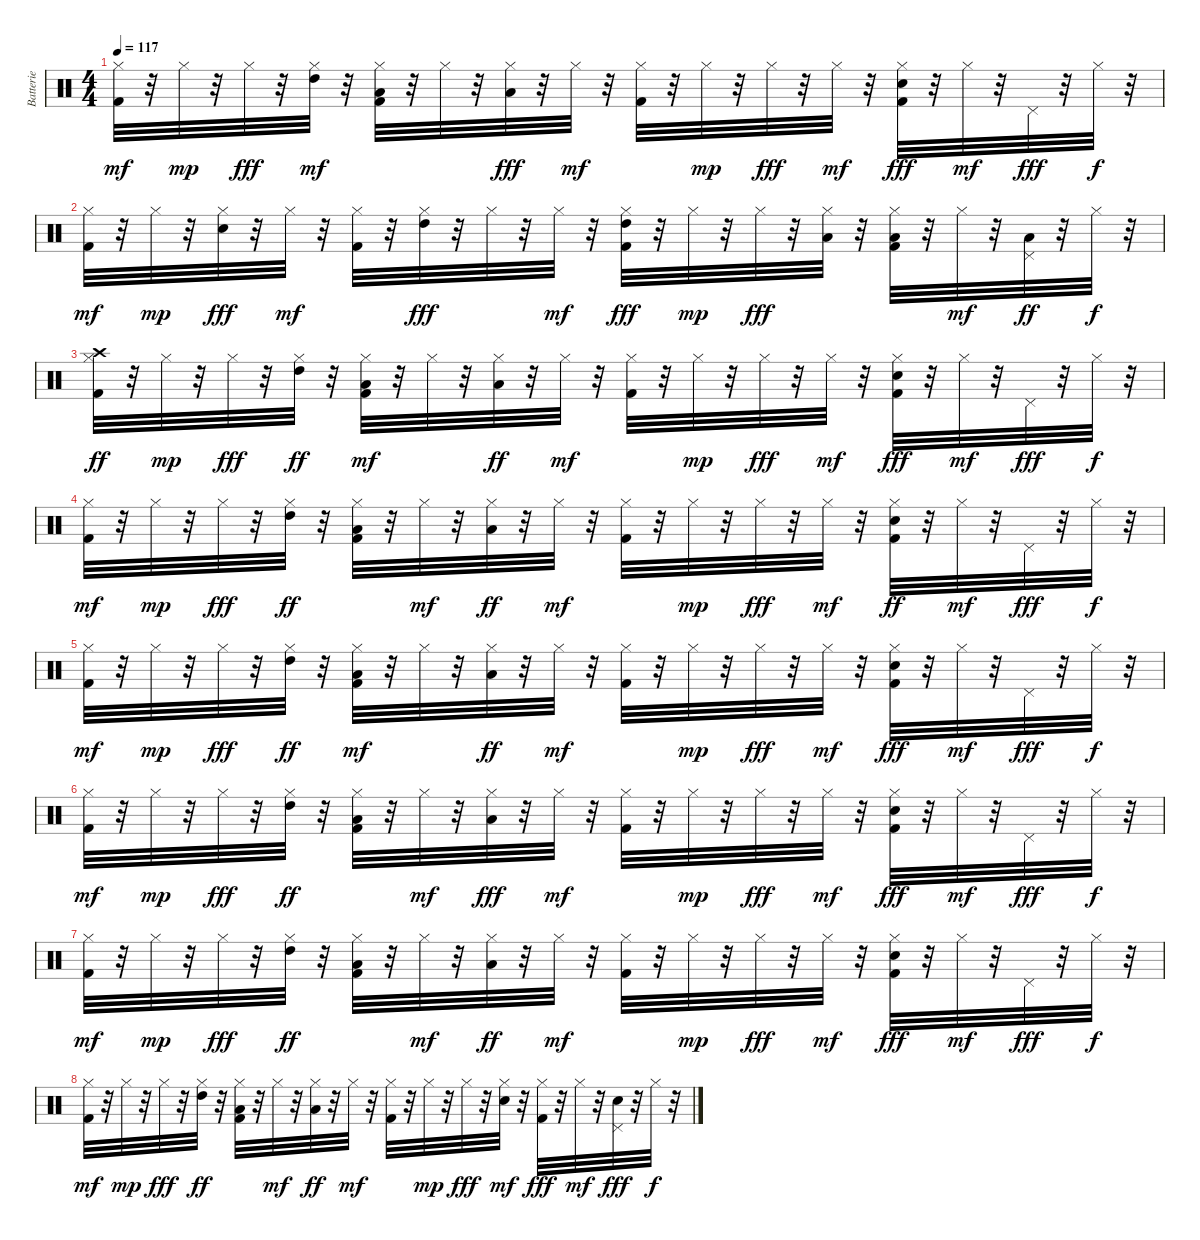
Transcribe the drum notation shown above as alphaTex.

\track ("Batterie" "Batterie") {instrument percussion}
\staff {score}
\articulation defaults
\ts (4 4)
\tempo 117
\clef neutral
\ks c
("Kick (hit) 2" "Hi-Hat (closed)").32{dy mf} r.32 "Hi-Hat (closed)".32{dy mp} r.32 "Hi-Hat (closed)".32{dy fff} r.32 ("Hi-Hat (closed)" "High Tom (hit)").32{dy mf} r.32 ("Kick (hit) 2" "Hi-Hat (closed)" "Low Tom (hit)").32 r.32 "Hi-Hat (closed)".32 r.32 ("Hi-Hat (closed)" "Low Floor Tom (hit)").32{dy fff} r.32 "Hi-Hat (closed)".32{dy mf} r.32 ("Kick (hit) 2" "Hi-Hat (closed)").32 r.32 "Hi-Hat (closed)".32{dy mp} r.32 "Hi-Hat (closed)".32{dy fff} r.32 "Hi-Hat (closed)".32{dy mf} r.32 ("Kick (hit) 2" "Electric Snare (hit)" "Hi-Hat (closed)").32{dy fff} r.32 "Hi-Hat (closed)".32{dy mf} r.32 "Pedal Hi-Hat (hit)".32{dy fff} r.32 "Hi-Hat (closed)".32{dy f} r.32 |
("Kick (hit) 2" "Hi-Hat (closed)").32{dy mf} r.32 "Hi-Hat (closed)".32{dy mp} r.32 ("Electric Snare (hit)" "Hi-Hat (closed)").32{dy fff} r.32 "Hi-Hat (closed)".32{dy mf} r.32 ("Kick (hit) 2" "Hi-Hat (closed)").32 r.32 ("Hi-Hat (closed)" "High Tom (hit)").32{dy fff} r.32 "Hi-Hat (closed)".32 r.32 "Hi-Hat (closed)".32{dy mf} r.32 ("Kick (hit) 2" "Hi-Hat (closed)" "High Tom (hit)").32{dy fff} r.32 "Hi-Hat (closed)".32{dy mp} r.32 "Hi-Hat (closed)".32{dy fff} r.32 ("Hi-Hat (closed)" "Low Tom (hit)").32 r.32 ("Kick (hit) 2" "Hi-Hat (closed)" "Low Floor Tom (hit)").32 r.32 "Hi-Hat (closed)".32{dy mf} r.32 ("Pedal Hi-Hat (hit)" "Low Floor Tom (hit)").32{dy ff} r.32 "Hi-Hat (closed)".32{dy f} r.32 |
("Kick (hit) 2" "Hi-Hat (closed)" "Crash high (hit)").32{dy ff} r.32 "Hi-Hat (closed)".32{dy mp} r.32 "Hi-Hat (closed)".32{dy fff} r.32 ("Hi-Hat (closed)" "High Tom (hit)").32{dy ff} r.32 ("Kick (hit) 2" "Hi-Hat (closed)" "Low Tom (hit)").32{dy mf} r.32 "Hi-Hat (closed)".32 r.32 ("Hi-Hat (closed)" "Low Floor Tom (hit)").32{dy ff} r.32 "Hi-Hat (closed)".32{dy mf} r.32 ("Kick (hit) 2" "Hi-Hat (closed)").32 r.32 "Hi-Hat (closed)".32{dy mp} r.32 "Hi-Hat (closed)".32{dy fff} r.32 "Hi-Hat (closed)".32{dy mf} r.32 ("Kick (hit) 2" "Electric Snare (hit)" "Hi-Hat (closed)").32{dy fff} r.32 "Hi-Hat (closed)".32{dy mf} r.32 "Pedal Hi-Hat (hit)".32{dy fff} r.32 "Hi-Hat (closed)".32{dy f} r.32 |
("Kick (hit) 2" "Hi-Hat (closed)").32{dy mf} r.32 "Hi-Hat (closed)".32{dy mp} r.32 "Hi-Hat (closed)".32{dy fff} r.32 ("Hi-Hat (closed)" "High Tom (hit)").32{dy ff} r.32 ("Kick (hit) 2" "Hi-Hat (closed)" "Low Tom (hit)").32 r.32 "Hi-Hat (closed)".32{dy mf} r.32 ("Hi-Hat (closed)" "Low Floor Tom (hit)").32{dy ff} r.32 "Hi-Hat (closed)".32{dy mf} r.32 ("Kick (hit) 2" "Hi-Hat (closed)").32 r.32 "Hi-Hat (closed)".32{dy mp} r.32 "Hi-Hat (closed)".32{dy fff} r.32 "Hi-Hat (closed)".32{dy mf} r.32 ("Kick (hit) 2" "Electric Snare (hit)" "Hi-Hat (closed)").32{dy ff} r.32 "Hi-Hat (closed)".32{dy mf} r.32 "Pedal Hi-Hat (hit)".32{dy fff} r.32 "Hi-Hat (closed)".32{dy f} r.32 |
("Kick (hit) 2" "Hi-Hat (closed)").32{dy mf} r.32 "Hi-Hat (closed)".32{dy mp} r.32 "Hi-Hat (closed)".32{dy fff} r.32 ("Hi-Hat (closed)" "High Tom (hit)").32{dy ff} r.32 ("Kick (hit) 2" "Hi-Hat (closed)" "Low Tom (hit)").32{dy mf} r.32 "Hi-Hat (closed)".32 r.32 ("Hi-Hat (closed)" "Low Floor Tom (hit)").32{dy ff} r.32 "Hi-Hat (closed)".32{dy mf} r.32 ("Kick (hit) 2" "Hi-Hat (closed)").32 r.32 "Hi-Hat (closed)".32{dy mp} r.32 "Hi-Hat (closed)".32{dy fff} r.32 "Hi-Hat (closed)".32{dy mf} r.32 ("Kick (hit) 2" "Electric Snare (hit)" "Hi-Hat (closed)").32{dy fff} r.32 "Hi-Hat (closed)".32{dy mf} r.32 "Pedal Hi-Hat (hit)".32{dy fff} r.32 "Hi-Hat (closed)".32{dy f} r.32 |
("Kick (hit) 2" "Hi-Hat (closed)").32{dy mf} r.32 "Hi-Hat (closed)".32{dy mp} r.32 "Hi-Hat (closed)".32{dy fff} r.32 ("Hi-Hat (closed)" "High Tom (hit)").32{dy ff} r.32 ("Kick (hit) 2" "Hi-Hat (closed)" "Low Tom (hit)").32 r.32 "Hi-Hat (closed)".32{dy mf} r.32 ("Hi-Hat (closed)" "Low Floor Tom (hit)").32{dy fff} r.32 "Hi-Hat (closed)".32{dy mf} r.32 ("Kick (hit) 2" "Hi-Hat (closed)").32 r.32 "Hi-Hat (closed)".32{dy mp} r.32 "Hi-Hat (closed)".32{dy fff} r.32 "Hi-Hat (closed)".32{dy mf} r.32 ("Kick (hit) 2" "Electric Snare (hit)" "Hi-Hat (closed)").32{dy fff} r.32 "Hi-Hat (closed)".32{dy mf} r.32 "Pedal Hi-Hat (hit)".32{dy fff} r.32 "Hi-Hat (closed)".32{dy f} r.32 |
("Kick (hit) 2" "Hi-Hat (closed)").32{dy mf} r.32 "Hi-Hat (closed)".32{dy mp} r.32 "Hi-Hat (closed)".32{dy fff} r.32 ("Hi-Hat (closed)" "High Tom (hit)").32{dy ff} r.32 ("Kick (hit) 2" "Hi-Hat (closed)" "Low Tom (hit)").32 r.32 "Hi-Hat (closed)".32{dy mf} r.32 ("Hi-Hat (closed)" "Low Floor Tom (hit)").32{dy ff} r.32 "Hi-Hat (closed)".32{dy mf} r.32 ("Kick (hit) 2" "Hi-Hat (closed)").32 r.32 "Hi-Hat (closed)".32{dy mp} r.32 "Hi-Hat (closed)".32{dy fff} r.32 "Hi-Hat (closed)".32{dy mf} r.32 ("Kick (hit) 2" "Electric Snare (hit)" "Hi-Hat (closed)").32{dy fff} r.32 "Hi-Hat (closed)".32{dy mf} r.32 "Pedal Hi-Hat (hit)".32{dy fff} r.32 "Hi-Hat (closed)".32{dy f} r.32 |
("Kick (hit) 2" "Hi-Hat (closed)").32{dy mf} r.32 "Hi-Hat (closed)".32{dy mp} r.32 "Hi-Hat (closed)".32{dy fff} r.32 ("Hi-Hat (closed)" "High Tom (hit)").32{dy ff} r.32 ("Kick (hit) 2" "Hi-Hat (closed)" "Low Tom (hit)").32 r.32 "Hi-Hat (closed)".32{dy mf} r.32 ("Hi-Hat (closed)" "Low Floor Tom (hit)").32{dy ff} r.32 "Hi-Hat (closed)".32{dy mf} r.32 ("Kick (hit) 2" "Hi-Hat (closed)").32 r.32 "Hi-Hat (closed)".32{dy mp} r.32 "Hi-Hat (closed)".32{dy fff} r.32 ("Electric Snare (hit)" "Hi-Hat (closed)").32{dy mf} r.32 ("Kick (hit) 2" "Hi-Hat (closed)").32{dy fff} r.32 "Hi-Hat (closed)".32{dy mf} r.32 ("Electric Snare (hit)" "Pedal Hi-Hat (hit)").32{dy fff} r.32 "Hi-Hat (closed)".32{dy f} r.32
